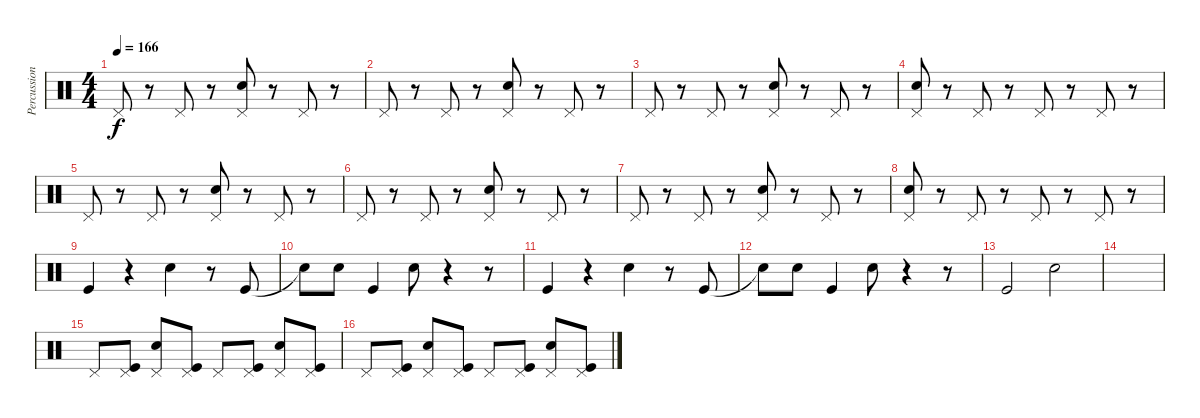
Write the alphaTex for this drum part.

\track ("Percussions" "Percussion") {instrument percussion}
\staff {score}
\articulation defaults
\ts (4 4)
\tempo 166
\clef neutral
\ks c "Pedal Hi-Hat (hit)".8{dy f}
r.8 "Pedal Hi-Hat (hit)".8 r.8 ("Snare (hit) 2" "Pedal Hi-Hat (hit)").8 r.8 "Pedal Hi-Hat (hit)".8 r.8 |
"Pedal Hi-Hat (hit)".8 r.8 "Pedal Hi-Hat (hit)".8 r.8 ("Snare (hit) 2" "Pedal Hi-Hat (hit)").8 r.8 "Pedal Hi-Hat (hit)".8 r.8 |
"Pedal Hi-Hat (hit)".8 r.8 "Pedal Hi-Hat (hit)".8 r.8 ("Snare (hit) 2" "Pedal Hi-Hat (hit)").8 r.8 "Pedal Hi-Hat (hit)".8 r.8 |
("Snare (hit) 2" "Pedal Hi-Hat (hit)").8 r.8 "Pedal Hi-Hat (hit)".8 r.8 "Pedal Hi-Hat (hit)".8 r.8 "Pedal Hi-Hat (hit)".8 r.8 |
"Pedal Hi-Hat (hit)".8 r.8 "Pedal Hi-Hat (hit)".8 r.8 ("Snare (hit) 2" "Pedal Hi-Hat (hit)").8 r.8 "Pedal Hi-Hat (hit)".8 r.8 |
"Pedal Hi-Hat (hit)".8 r.8 "Pedal Hi-Hat (hit)".8 r.8 ("Snare (hit) 2" "Pedal Hi-Hat (hit)").8 r.8 "Pedal Hi-Hat (hit)".8 r.8 |
"Pedal Hi-Hat (hit)".8 r.8 "Pedal Hi-Hat (hit)".8 r.8 ("Snare (hit) 2" "Pedal Hi-Hat (hit)").8 r.8 "Pedal Hi-Hat (hit)".8 r.8 |
("Snare (hit) 2" "Pedal Hi-Hat (hit)").8 r.8 "Pedal Hi-Hat (hit)".8 r.8 "Pedal Hi-Hat (hit)".8 r.8 "Pedal Hi-Hat (hit)".8 r.8 |
"Kick (hit)".4 r.4 "Snare (hit) 2".4 r.8 "Kick (hit)".8 |
"Snare (hit)"{t}.8 "Snare (hit) 2".8 "Kick (hit)".4 "Snare (hit) 2".8 r.4 r.8 |
"Kick (hit)".4 r.4 "Snare (hit) 2".4 r.8 "Kick (hit)".8 |
"Snare (hit)"{t}.8 "Snare (hit) 2".8 "Kick (hit)".4 "Snare (hit) 2".8 r.4 r.8 |
"Kick (hit)".2 "Snare (hit) 2".2 |
|
"Pedal Hi-Hat (hit)".8 ("Pedal Hi-Hat (hit)" "Kick (hit)").8 ("Pedal Hi-Hat (hit)" "Snare (hit) 2").8 ("Pedal Hi-Hat (hit)" "Kick (hit)").8 "Pedal Hi-Hat (hit)".8 ("Pedal Hi-Hat (hit)" "Kick (hit)").8 ("Pedal Hi-Hat (hit)" "Snare (hit) 2").8 ("Pedal Hi-Hat (hit)" "Kick (hit)").8 |
"Pedal Hi-Hat (hit)".8 ("Pedal Hi-Hat (hit)" "Kick (hit)").8 ("Pedal Hi-Hat (hit)" "Snare (hit) 2").8 ("Pedal Hi-Hat (hit)" "Kick (hit)").8 "Pedal Hi-Hat (hit)".8 ("Pedal Hi-Hat (hit)" "Kick (hit)").8 ("Pedal Hi-Hat (hit)" "Snare (hit) 2").8 ("Pedal Hi-Hat (hit)" "Kick (hit)").8
